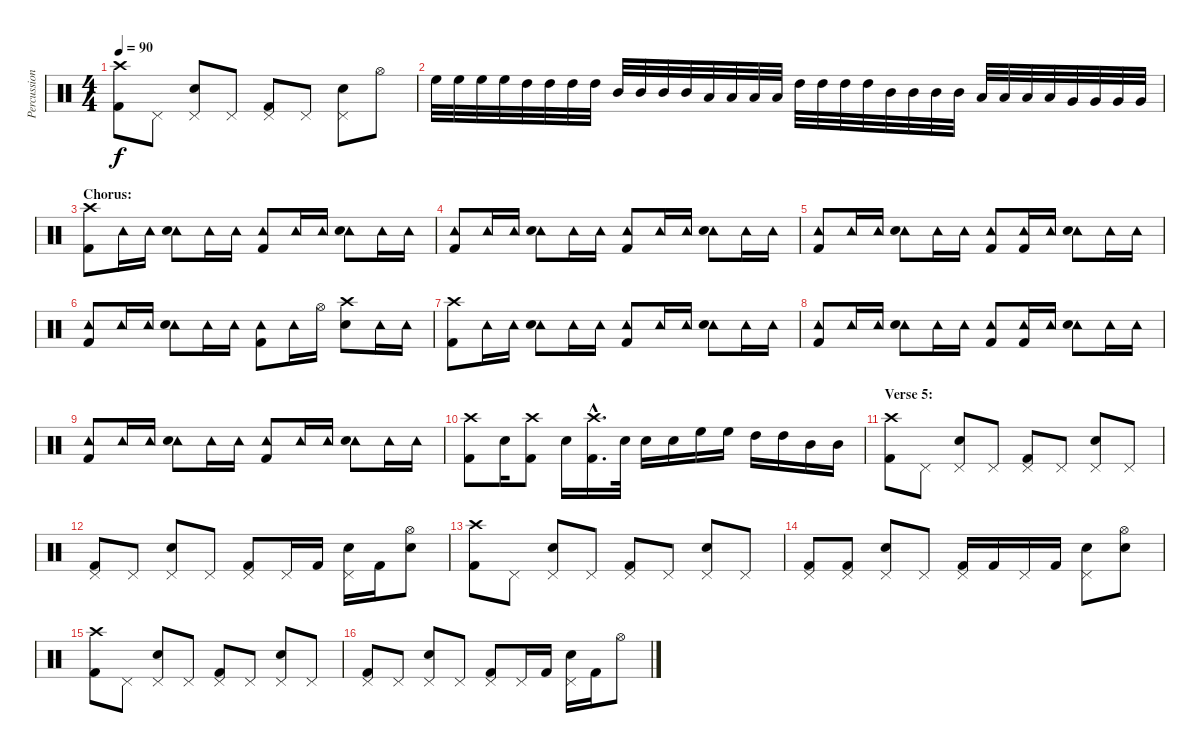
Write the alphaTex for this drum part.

\track ("Percussion" "Percussion") {instrument percussion}
\staff {score}
\articulation defaults
\ts (4 4)
\tempo 90
\clef neutral
\ks c
("Crash high (hit)" "Kick (hit) 2").8{dy f} "Pedal Hi-Hat (hit)".8 ("Pedal Hi-Hat (hit)" "Electric Snare (hit)").8 "Pedal Hi-Hat (hit)".8 ("Pedal Hi-Hat (hit)" "Kick (hit) 2").8 "Pedal Hi-Hat (hit)".8 ("Pedal Hi-Hat (hit)" "Electric Snare (hit)").8 "Hi-Hat (open)".8 |
"High Floor Tom (hit)".32 "High Floor Tom (hit)".32 "High Floor Tom (hit)".32 "High Floor Tom (hit)".32 "High Tom (hit)".32 "High Tom (hit)".32 "High Tom (hit)".32 "High Tom (hit)".32 "Mid Tom (hit)".32 "Mid Tom (hit)".32 "Mid Tom (hit)".32 "Mid Tom (hit)".32 "Low Tom (hit)".32 "Low Tom (hit)".32 "Low Tom (hit)".32 "Low Tom (hit)".32 "High Tom (hit)".32 "High Tom (hit)".32 "High Tom (hit)".32 "High Tom (hit)".32 "Mid Tom (hit)".32 "Mid Tom (hit)".32 "Mid Tom (hit)".32 "Mid Tom (hit)".32 "Low Tom (hit)".32 "Low Tom (hit)".32 "Low Tom (hit)".32 "Low Tom (hit)".32 "Very Low Tom (hit)".32 "Very Low Tom (hit)".32 "Very Low Tom (hit)".32 "Very Low Tom (hit)".32 |
\section ("" "Chorus:")
("Crash high (hit)" "Kick (hit) 2").8 "Tambourine (hit)".16 "Tambourine (hit)".16 ("Tambourine (hit)" "Electric Snare (hit)").8 "Tambourine (hit)".16 "Tambourine (hit)".16 ("Tambourine (hit)" "Kick (hit) 2").8 "Tambourine (hit)".16 "Tambourine (hit)".16 ("Tambourine (hit)" "Electric Snare (hit)").8 "Tambourine (hit)".16 "Tambourine (hit)".16 |
("Tambourine (hit)" "Kick (hit) 2").8 "Tambourine (hit)".16 "Tambourine (hit)".16 ("Tambourine (hit)" "Electric Snare (hit)").8 "Tambourine (hit)".16 "Tambourine (hit)".16 ("Tambourine (hit)" "Kick (hit) 2").8 "Tambourine (hit)".16 "Tambourine (hit)".16 ("Tambourine (hit)" "Electric Snare (hit)").8 "Tambourine (hit)".16 "Tambourine (hit)".16 |
("Tambourine (hit)" "Kick (hit) 2").8 "Tambourine (hit)".16 "Tambourine (hit)".16 ("Tambourine (hit)" "Electric Snare (hit)").8 "Tambourine (hit)".16 "Tambourine (hit)".16 ("Tambourine (hit)" "Kick (hit) 2").8 ("Tambourine (hit)" "Kick (hit) 2").16 "Tambourine (hit)".16 ("Tambourine (hit)" "Electric Snare (hit)").8 "Tambourine (hit)".16 "Tambourine (hit)".16 |
("Tambourine (hit)" "Kick (hit) 2").8 "Tambourine (hit)".16 "Tambourine (hit)".16 ("Tambourine (hit)" "Electric Snare (hit)").8 "Tambourine (hit)".16 "Tambourine (hit)".16 ("Tambourine (hit)" "Kick (hit) 2").8 "Tambourine (hit)".16 "Hi-Hat (open)".16 ("Crash high (hit)" "Electric Snare (hit)").8 "Tambourine (hit)".16 "Tambourine (hit)".16 |
("Crash high (hit)" "Kick (hit) 2").8 "Tambourine (hit)".16 "Tambourine (hit)".16 ("Tambourine (hit)" "Electric Snare (hit)").8 "Tambourine (hit)".16 "Tambourine (hit)".16 ("Tambourine (hit)" "Kick (hit) 2").8 "Tambourine (hit)".16 "Tambourine (hit)".16 ("Tambourine (hit)" "Electric Snare (hit)").8 "Tambourine (hit)".16 "Tambourine (hit)".16 |
("Tambourine (hit)" "Kick (hit) 2").8 "Tambourine (hit)".16 "Tambourine (hit)".16 ("Tambourine (hit)" "Electric Snare (hit)").8 "Tambourine (hit)".16 "Tambourine (hit)".16 ("Tambourine (hit)" "Kick (hit) 2").8 ("Tambourine (hit)" "Kick (hit) 2").16 "Tambourine (hit)".16 ("Tambourine (hit)" "Electric Snare (hit)").8 "Tambourine (hit)".16 "Tambourine (hit)".16 |
("Tambourine (hit)" "Kick (hit) 2").8 "Tambourine (hit)".16 "Tambourine (hit)".16 ("Tambourine (hit)" "Electric Snare (hit)").8 "Tambourine (hit)".16 "Tambourine (hit)".16 ("Tambourine (hit)" "Kick (hit) 2").8 "Tambourine (hit)".16 "Tambourine (hit)".16 ("Tambourine (hit)" "Electric Snare (hit)").8 "Tambourine (hit)".16 "Tambourine (hit)".16 |
("Crash high (hit)" "Kick (hit) 2").8 "Electric Snare (hit)".16 ("Crash high (hit)" "Kick (hit) 2").8 "Electric Snare (hit)".16 ("Crash high (hit)"{hac} "Kick (hit) 2"{hac}).16{d} "Electric Snare (hit)".32 "Electric Snare (hit)".16 "Electric Snare (hit)".16 "High Floor Tom (hit)".16 "High Floor Tom (hit)".16 "High Tom (hit)".16 "High Tom (hit)".16 "Mid Tom (hit)".16 "Mid Tom (hit)".16 |
\section ("" "Verse 5:")
("Crash high (hit)" "Kick (hit) 2").8 "Pedal Hi-Hat (hit)".8 ("Pedal Hi-Hat (hit)" "Electric Snare (hit)").8 "Pedal Hi-Hat (hit)".8 ("Pedal Hi-Hat (hit)" "Kick (hit) 2").8 "Pedal Hi-Hat (hit)".8 ("Pedal Hi-Hat (hit)" "Electric Snare (hit)").8 "Pedal Hi-Hat (hit)".8 |
("Pedal Hi-Hat (hit)" "Kick (hit) 2").8 "Pedal Hi-Hat (hit)".8 ("Pedal Hi-Hat (hit)" "Electric Snare (hit)").8 "Pedal Hi-Hat (hit)".8 ("Pedal Hi-Hat (hit)" "Kick (hit) 2").8 "Pedal Hi-Hat (hit)".16 "Kick (hit) 2".16 ("Pedal Hi-Hat (hit)" "Electric Snare (hit)").16 "Kick (hit) 2".16 ("Hi-Hat (open)" "Electric Snare (hit)").8 |
("Crash high (hit)" "Kick (hit) 2").8 "Pedal Hi-Hat (hit)".8 ("Pedal Hi-Hat (hit)" "Electric Snare (hit)").8 "Pedal Hi-Hat (hit)".8 ("Pedal Hi-Hat (hit)" "Kick (hit) 2").8 "Pedal Hi-Hat (hit)".8 ("Pedal Hi-Hat (hit)" "Electric Snare (hit)").8 "Pedal Hi-Hat (hit)".8 |
("Pedal Hi-Hat (hit)" "Kick (hit) 2").8 ("Pedal Hi-Hat (hit)" "Kick (hit) 2").8 ("Pedal Hi-Hat (hit)" "Electric Snare (hit)").8 "Pedal Hi-Hat (hit)".8 ("Pedal Hi-Hat (hit)" "Kick (hit) 2").16 "Kick (hit) 2".16 "Pedal Hi-Hat (hit)".16 "Kick (hit) 2".16 ("Pedal Hi-Hat (hit)" "Electric Snare (hit)").8 ("Hi-Hat (open)" "Electric Snare (hit)").8 |
("Crash high (hit)" "Kick (hit) 2").8 "Pedal Hi-Hat (hit)".8 ("Pedal Hi-Hat (hit)" "Electric Snare (hit)").8 "Pedal Hi-Hat (hit)".8 ("Pedal Hi-Hat (hit)" "Kick (hit) 2").8 "Pedal Hi-Hat (hit)".8 ("Pedal Hi-Hat (hit)" "Electric Snare (hit)").8 "Pedal Hi-Hat (hit)".8 |
("Pedal Hi-Hat (hit)" "Kick (hit) 2").8 "Pedal Hi-Hat (hit)".8 ("Pedal Hi-Hat (hit)" "Electric Snare (hit)").8 "Pedal Hi-Hat (hit)".8 ("Pedal Hi-Hat (hit)" "Kick (hit) 2").8 "Pedal Hi-Hat (hit)".16 "Kick (hit) 2".16 ("Pedal Hi-Hat (hit)" "Electric Snare (hit)").16 "Kick (hit) 2".16 "Hi-Hat (open)".8
